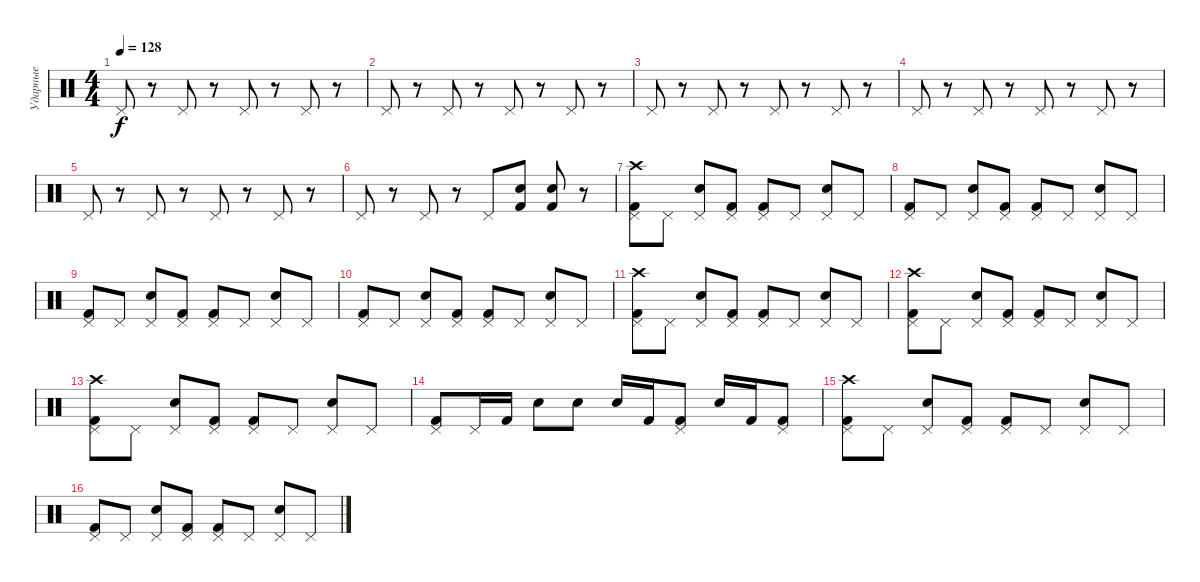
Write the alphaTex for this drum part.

\track ("Ударные" "Ударные") {instrument percussion}
\staff {score}
\articulation defaults
\ts (4 4)
\tempo 128
\clef neutral
\ks c "Pedal Hi-Hat (hit)".8{dy f}
r.8 "Pedal Hi-Hat (hit)".8 r.8 "Pedal Hi-Hat (hit)".8 r.8 "Pedal Hi-Hat (hit)".8 r.8 |
"Pedal Hi-Hat (hit)".8 r.8 "Pedal Hi-Hat (hit)".8 r.8 "Pedal Hi-Hat (hit)".8 r.8 "Pedal Hi-Hat (hit)".8 r.8 |
"Pedal Hi-Hat (hit)".8 r.8 "Pedal Hi-Hat (hit)".8 r.8 "Pedal Hi-Hat (hit)".8 r.8 "Pedal Hi-Hat (hit)".8 r.8 |
"Pedal Hi-Hat (hit)".8 r.8 "Pedal Hi-Hat (hit)".8 r.8 "Pedal Hi-Hat (hit)".8 r.8 "Pedal Hi-Hat (hit)".8 r.8 |
"Pedal Hi-Hat (hit)".8 r.8 "Pedal Hi-Hat (hit)".8 r.8 "Pedal Hi-Hat (hit)".8 r.8 "Pedal Hi-Hat (hit)".8 r.8 |
"Pedal Hi-Hat (hit)".8 r.8 "Pedal Hi-Hat (hit)".8 r.8 "Pedal Hi-Hat (hit)".8 ("Kick (hit) 2" "Electric Snare (hit)").8 ("Kick (hit) 2" "Electric Snare (hit)").8 r.8 |
("Kick (hit) 2" "Pedal Hi-Hat (hit)" "Crash high (hit)").8 "Pedal Hi-Hat (hit)".8 ("Pedal Hi-Hat (hit)" "Electric Snare (hit)").8 ("Kick (hit) 2" "Pedal Hi-Hat (hit)").8 ("Kick (hit) 2" "Pedal Hi-Hat (hit)").8 "Pedal Hi-Hat (hit)".8 ("Pedal Hi-Hat (hit)" "Electric Snare (hit)").8 "Pedal Hi-Hat (hit)".8 |
("Kick (hit) 2" "Pedal Hi-Hat (hit)").8 "Pedal Hi-Hat (hit)".8 ("Pedal Hi-Hat (hit)" "Electric Snare (hit)").8 ("Kick (hit) 2" "Pedal Hi-Hat (hit)").8 ("Kick (hit) 2" "Pedal Hi-Hat (hit)").8 "Pedal Hi-Hat (hit)".8 ("Pedal Hi-Hat (hit)" "Electric Snare (hit)").8 "Pedal Hi-Hat (hit)".8 |
("Kick (hit) 2" "Pedal Hi-Hat (hit)").8 "Pedal Hi-Hat (hit)".8 ("Pedal Hi-Hat (hit)" "Electric Snare (hit)").8 ("Kick (hit) 2" "Pedal Hi-Hat (hit)").8 ("Kick (hit) 2" "Pedal Hi-Hat (hit)").8 "Pedal Hi-Hat (hit)".8 ("Pedal Hi-Hat (hit)" "Electric Snare (hit)").8 "Pedal Hi-Hat (hit)".8 |
("Kick (hit) 2" "Pedal Hi-Hat (hit)").8 "Pedal Hi-Hat (hit)".8 ("Pedal Hi-Hat (hit)" "Electric Snare (hit)").8 ("Kick (hit) 2" "Pedal Hi-Hat (hit)").8 ("Kick (hit) 2" "Pedal Hi-Hat (hit)").8 "Pedal Hi-Hat (hit)".8 ("Pedal Hi-Hat (hit)" "Electric Snare (hit)").8 "Pedal Hi-Hat (hit)".8 |
("Kick (hit) 2" "Pedal Hi-Hat (hit)" "Crash high (hit)").8 "Pedal Hi-Hat (hit)".8 ("Pedal Hi-Hat (hit)" "Electric Snare (hit)").8 ("Kick (hit) 2" "Pedal Hi-Hat (hit)").8 ("Kick (hit) 2" "Pedal Hi-Hat (hit)").8 "Pedal Hi-Hat (hit)".8 ("Pedal Hi-Hat (hit)" "Electric Snare (hit)").8 "Pedal Hi-Hat (hit)".8 |
("Kick (hit) 2" "Pedal Hi-Hat (hit)" "Crash high (hit)").8 "Pedal Hi-Hat (hit)".8 ("Pedal Hi-Hat (hit)" "Electric Snare (hit)").8 ("Kick (hit) 2" "Pedal Hi-Hat (hit)").8 ("Kick (hit) 2" "Pedal Hi-Hat (hit)").8 "Pedal Hi-Hat (hit)".8 ("Pedal Hi-Hat (hit)" "Electric Snare (hit)").8 "Pedal Hi-Hat (hit)".8 |
("Kick (hit) 2" "Pedal Hi-Hat (hit)" "Crash high (hit)").8 "Pedal Hi-Hat (hit)".8 ("Pedal Hi-Hat (hit)" "Electric Snare (hit)").8 ("Kick (hit) 2" "Pedal Hi-Hat (hit)").8 ("Kick (hit) 2" "Pedal Hi-Hat (hit)").8 "Pedal Hi-Hat (hit)".8 ("Pedal Hi-Hat (hit)" "Electric Snare (hit)").8 "Pedal Hi-Hat (hit)".8 |
("Kick (hit) 2" "Pedal Hi-Hat (hit)").8 "Pedal Hi-Hat (hit)".16 "Kick (hit) 2".16 "Electric Snare (hit)".8 "Electric Snare (hit)".8 "Electric Snare (hit)".16 "Kick (hit) 2".16 ("Kick (hit) 2" "Pedal Hi-Hat (hit)").8 "Electric Snare (hit)".16 "Kick (hit) 2".16 ("Kick (hit) 2" "Pedal Hi-Hat (hit)").8 |
("Kick (hit) 2" "Pedal Hi-Hat (hit)" "Crash high (hit)").8 "Pedal Hi-Hat (hit)".8 ("Pedal Hi-Hat (hit)" "Electric Snare (hit)").8 ("Kick (hit) 2" "Pedal Hi-Hat (hit)").8 ("Kick (hit) 2" "Pedal Hi-Hat (hit)").8 "Pedal Hi-Hat (hit)".8 ("Pedal Hi-Hat (hit)" "Electric Snare (hit)").8 "Pedal Hi-Hat (hit)".8 |
("Kick (hit) 2" "Pedal Hi-Hat (hit)").8 "Pedal Hi-Hat (hit)".8 ("Pedal Hi-Hat (hit)" "Electric Snare (hit)").8 ("Kick (hit) 2" "Pedal Hi-Hat (hit)").8 ("Kick (hit) 2" "Pedal Hi-Hat (hit)").8 "Pedal Hi-Hat (hit)".8 ("Pedal Hi-Hat (hit)" "Electric Snare (hit)").8 "Pedal Hi-Hat (hit)".8
